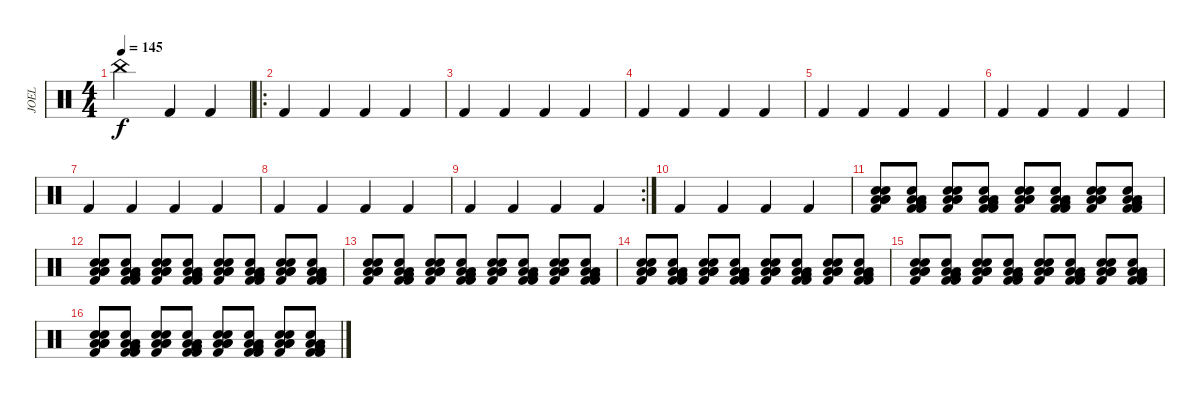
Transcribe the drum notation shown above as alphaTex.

\track ("JOEL" "JOEL") {instrument percussion}
\staff {score}
\articulation defaults
\ts (4 4)
\tempo 145
\clef neutral
\ks c "China (hit)".2{dy f} "Kick (hit) 2".4 "Kick (hit) 2".4
|
\ro "Kick (hit) 2".4 "Kick (hit) 2".4 "Kick (hit) 2".4 "Kick (hit) 2".4
|
"Kick (hit) 2".4 "Kick (hit) 2".4 "Kick (hit) 2".4 "Kick (hit) 2".4 |
"Kick (hit) 2".4 "Kick (hit) 2".4 "Kick (hit) 2".4 "Kick (hit) 2".4 |
"Kick (hit) 2".4 "Kick (hit) 2".4 "Kick (hit) 2".4 "Kick (hit) 2".4 |
"Kick (hit) 2".4 "Kick (hit) 2".4 "Kick (hit) 2".4 "Kick (hit) 2".4 |
"Kick (hit) 2".4 "Kick (hit) 2".4 "Kick (hit) 2".4 "Kick (hit) 2".4 |
"Kick (hit) 2".4 "Kick (hit) 2".4 "Kick (hit) 2".4 "Kick (hit) 2".4 |
\rc 2 "Kick (hit) 2".4 "Kick (hit) 2".4 "Kick (hit) 2".4 "Kick (hit) 2".4
|
"Kick (hit) 2".4 "Kick (hit) 2".4 "Kick (hit) 2".4 "Kick (hit) 2".4 |
("Low Floor Tom (hit)" "Kick (hit) 2" "Low Floor Tom (hit)" "Electric Snare (hit)" "Low Floor Tom (hit)" "Snare (hit) 2").8 ("Low Floor Tom (hit)" "Kick (hit) 2" "Low Floor Tom (hit)" "Electric Snare (hit)" "Very Low Tom (hit)" "Kick (hit) 2").8 ("Low Floor Tom (hit)" "Kick (hit) 2" "Low Floor Tom (hit)" "Electric Snare (hit)" "Low Floor Tom (hit)" "Snare (hit) 2").8 ("Low Floor Tom (hit)" "Kick (hit) 2" "Low Floor Tom (hit)" "Electric Snare (hit)" "Very Low Tom (hit)" "Kick (hit) 2").8 ("Low Floor Tom (hit)" "Kick (hit) 2" "Low Floor Tom (hit)" "Electric Snare (hit)" "Low Floor Tom (hit)" "Snare (hit) 2").8 ("Low Floor Tom (hit)" "Kick (hit) 2" "Low Floor Tom (hit)" "Electric Snare (hit)" "Very Low Tom (hit)" "Kick (hit) 2").8 ("Low Floor Tom (hit)" "Kick (hit) 2" "Low Floor Tom (hit)" "Electric Snare (hit)" "Low Floor Tom (hit)" "Snare (hit) 2").8 ("Low Floor Tom (hit)" "Kick (hit) 2" "Low Floor Tom (hit)" "Electric Snare (hit)" "Very Low Tom (hit)" "Kick (hit) 2").8 |
("Low Floor Tom (hit)" "Kick (hit) 2" "Low Floor Tom (hit)" "Electric Snare (hit)" "Low Floor Tom (hit)" "Snare (hit) 2").8 ("Low Floor Tom (hit)" "Kick (hit) 2" "Low Floor Tom (hit)" "Electric Snare (hit)" "Very Low Tom (hit)" "Kick (hit) 2").8 ("Low Floor Tom (hit)" "Kick (hit) 2" "Low Floor Tom (hit)" "Electric Snare (hit)" "Low Floor Tom (hit)" "Snare (hit) 2").8 ("Low Floor Tom (hit)" "Kick (hit) 2" "Low Floor Tom (hit)" "Electric Snare (hit)" "Very Low Tom (hit)" "Kick (hit) 2").8 ("Low Floor Tom (hit)" "Kick (hit) 2" "Low Floor Tom (hit)" "Electric Snare (hit)" "Low Floor Tom (hit)" "Snare (hit) 2").8 ("Low Floor Tom (hit)" "Kick (hit) 2" "Low Floor Tom (hit)" "Electric Snare (hit)" "Very Low Tom (hit)" "Kick (hit) 2").8 ("Low Floor Tom (hit)" "Kick (hit) 2" "Low Floor Tom (hit)" "Electric Snare (hit)" "Low Floor Tom (hit)" "Snare (hit) 2").8 ("Low Floor Tom (hit)" "Kick (hit) 2" "Low Floor Tom (hit)" "Electric Snare (hit)" "Very Low Tom (hit)" "Kick (hit) 2").8 |
("Low Floor Tom (hit)" "Kick (hit) 2" "Low Floor Tom (hit)" "Electric Snare (hit)" "Low Floor Tom (hit)" "Snare (hit) 2").8 ("Low Floor Tom (hit)" "Kick (hit) 2" "Low Floor Tom (hit)" "Electric Snare (hit)" "Very Low Tom (hit)" "Kick (hit) 2").8 ("Low Floor Tom (hit)" "Kick (hit) 2" "Low Floor Tom (hit)" "Electric Snare (hit)" "Low Floor Tom (hit)" "Snare (hit) 2").8 ("Low Floor Tom (hit)" "Kick (hit) 2" "Low Floor Tom (hit)" "Electric Snare (hit)" "Very Low Tom (hit)" "Kick (hit) 2").8 ("Low Floor Tom (hit)" "Kick (hit) 2" "Low Floor Tom (hit)" "Electric Snare (hit)" "Low Floor Tom (hit)" "Snare (hit) 2").8 ("Low Floor Tom (hit)" "Kick (hit) 2" "Low Floor Tom (hit)" "Electric Snare (hit)" "Very Low Tom (hit)" "Kick (hit) 2").8 ("Low Floor Tom (hit)" "Kick (hit) 2" "Low Floor Tom (hit)" "Electric Snare (hit)" "Low Floor Tom (hit)" "Snare (hit) 2").8 ("Low Floor Tom (hit)" "Kick (hit) 2" "Low Floor Tom (hit)" "Electric Snare (hit)" "Very Low Tom (hit)" "Kick (hit) 2").8 |
("Low Floor Tom (hit)" "Kick (hit) 2" "Low Floor Tom (hit)" "Electric Snare (hit)" "Low Floor Tom (hit)" "Snare (hit) 2").8 ("Low Floor Tom (hit)" "Kick (hit) 2" "Low Floor Tom (hit)" "Electric Snare (hit)" "Very Low Tom (hit)" "Kick (hit) 2").8 ("Low Floor Tom (hit)" "Kick (hit) 2" "Low Floor Tom (hit)" "Electric Snare (hit)" "Low Floor Tom (hit)" "Snare (hit) 2").8 ("Low Floor Tom (hit)" "Kick (hit) 2" "Low Floor Tom (hit)" "Electric Snare (hit)" "Very Low Tom (hit)" "Kick (hit) 2").8 ("Low Floor Tom (hit)" "Kick (hit) 2" "Low Floor Tom (hit)" "Electric Snare (hit)" "Low Floor Tom (hit)" "Snare (hit) 2").8 ("Low Floor Tom (hit)" "Kick (hit) 2" "Low Floor Tom (hit)" "Electric Snare (hit)" "Very Low Tom (hit)" "Kick (hit) 2").8 ("Low Floor Tom (hit)" "Kick (hit) 2" "Low Floor Tom (hit)" "Electric Snare (hit)" "Low Floor Tom (hit)" "Snare (hit) 2").8 ("Low Floor Tom (hit)" "Kick (hit) 2" "Low Floor Tom (hit)" "Electric Snare (hit)" "Very Low Tom (hit)" "Kick (hit) 2").8 |
("Low Floor Tom (hit)" "Kick (hit) 2" "Low Floor Tom (hit)" "Electric Snare (hit)" "Low Floor Tom (hit)" "Snare (hit) 2").8 ("Low Floor Tom (hit)" "Kick (hit) 2" "Low Floor Tom (hit)" "Electric Snare (hit)" "Very Low Tom (hit)" "Kick (hit) 2").8 ("Low Floor Tom (hit)" "Kick (hit) 2" "Low Floor Tom (hit)" "Electric Snare (hit)" "Low Floor Tom (hit)" "Snare (hit) 2").8 ("Low Floor Tom (hit)" "Kick (hit) 2" "Low Floor Tom (hit)" "Electric Snare (hit)" "Very Low Tom (hit)" "Kick (hit) 2").8 ("Low Floor Tom (hit)" "Kick (hit) 2" "Low Floor Tom (hit)" "Electric Snare (hit)" "Low Floor Tom (hit)" "Snare (hit) 2").8 ("Low Floor Tom (hit)" "Kick (hit) 2" "Low Floor Tom (hit)" "Electric Snare (hit)" "Very Low Tom (hit)" "Kick (hit) 2").8 ("Low Floor Tom (hit)" "Kick (hit) 2" "Low Floor Tom (hit)" "Electric Snare (hit)" "Low Floor Tom (hit)" "Snare (hit) 2").8 ("Low Floor Tom (hit)" "Kick (hit) 2" "Low Floor Tom (hit)" "Electric Snare (hit)" "Very Low Tom (hit)" "Kick (hit) 2").8 |
("Low Floor Tom (hit)" "Kick (hit) 2" "Low Floor Tom (hit)" "Electric Snare (hit)" "Low Floor Tom (hit)" "Snare (hit) 2").8 ("Low Floor Tom (hit)" "Kick (hit) 2" "Low Floor Tom (hit)" "Electric Snare (hit)" "Very Low Tom (hit)" "Kick (hit) 2").8 ("Low Floor Tom (hit)" "Kick (hit) 2" "Low Floor Tom (hit)" "Electric Snare (hit)" "Low Floor Tom (hit)" "Snare (hit) 2").8 ("Low Floor Tom (hit)" "Kick (hit) 2" "Low Floor Tom (hit)" "Electric Snare (hit)" "Very Low Tom (hit)" "Kick (hit) 2").8 ("Low Floor Tom (hit)" "Kick (hit) 2" "Low Floor Tom (hit)" "Electric Snare (hit)" "Low Floor Tom (hit)" "Snare (hit) 2").8 ("Low Floor Tom (hit)" "Kick (hit) 2" "Low Floor Tom (hit)" "Electric Snare (hit)" "Very Low Tom (hit)" "Kick (hit) 2").8 ("Low Floor Tom (hit)" "Kick (hit) 2" "Low Floor Tom (hit)" "Electric Snare (hit)" "Low Floor Tom (hit)" "Snare (hit) 2").8 ("Low Floor Tom (hit)" "Kick (hit) 2" "Low Floor Tom (hit)" "Electric Snare (hit)" "Very Low Tom (hit)" "Kick (hit) 2").8
